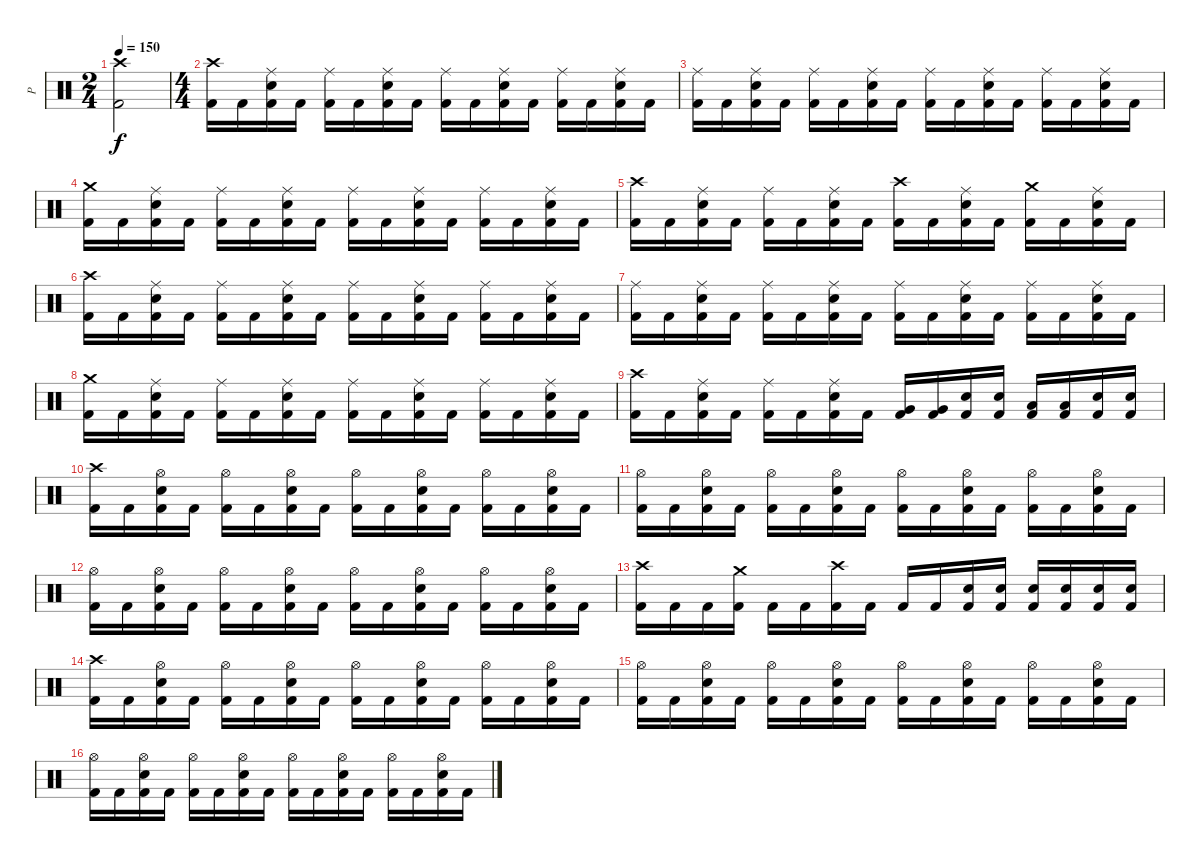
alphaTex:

\track ("P" "P") {instrument percussion}
\staff {score}
\articulation defaults
\ts (2 4)
\tempo 150
\clef neutral
\ks c
("Crash high (hit)" "Kick (hit) 2").2{dy f} |
\ts (4 4)
("Crash high (hit)" "Kick (hit) 2").16 "Kick (hit) 2".16 ("Ride (middle)" "Electric Snare (hit)" "Kick (hit) 2").16 "Kick (hit) 2".16 ("Ride (middle)" "Kick (hit) 2").16 "Kick (hit) 2".16 ("Ride (middle)" "Electric Snare (hit)" "Kick (hit) 2").16 "Kick (hit) 2".16 ("Ride (middle)" "Kick (hit) 2").16 "Kick (hit) 2".16 ("Ride (middle)" "Electric Snare (hit)" "Kick (hit) 2").16 "Kick (hit) 2".16 ("Ride (middle)" "Kick (hit) 2").16 "Kick (hit) 2".16 ("Ride (middle)" "Electric Snare (hit)" "Kick (hit) 2").16 "Kick (hit) 2".16 |
("Ride (middle)" "Kick (hit) 2").16 "Kick (hit) 2".16 ("Ride (middle)" "Electric Snare (hit)" "Kick (hit) 2").16 "Kick (hit) 2".16 ("Ride (middle)" "Kick (hit) 2").16 "Kick (hit) 2".16 ("Ride (middle)" "Electric Snare (hit)" "Kick (hit) 2").16 "Kick (hit) 2".16 ("Ride (middle)" "Kick (hit) 2").16 "Kick (hit) 2".16 ("Ride (middle)" "Electric Snare (hit)" "Kick (hit) 2").16 "Kick (hit) 2".16 ("Ride (middle)" "Kick (hit) 2").16 "Kick (hit) 2".16 ("Ride (middle)" "Electric Snare (hit)" "Kick (hit) 2").16 "Kick (hit) 2".16 |
("Crash medium (hit)" "Kick (hit) 2").16 "Kick (hit) 2".16 ("Ride (middle)" "Electric Snare (hit)" "Kick (hit) 2").16 "Kick (hit) 2".16 ("Ride (middle)" "Kick (hit) 2").16 "Kick (hit) 2".16 ("Ride (middle)" "Electric Snare (hit)" "Kick (hit) 2").16 "Kick (hit) 2".16 ("Ride (middle)" "Kick (hit) 2").16 "Kick (hit) 2".16 ("Ride (middle)" "Electric Snare (hit)" "Kick (hit) 2").16 "Kick (hit) 2".16 ("Ride (middle)" "Kick (hit) 2").16 "Kick (hit) 2".16 ("Ride (middle)" "Electric Snare (hit)" "Kick (hit) 2").16 "Kick (hit) 2".16 |
("Crash high (hit)" "Kick (hit) 2").16 "Kick (hit) 2".16 ("Ride (middle)" "Electric Snare (hit)" "Kick (hit) 2").16 "Kick (hit) 2".16 ("Ride (middle)" "Kick (hit) 2").16 "Kick (hit) 2".16 ("Ride (middle)" "Electric Snare (hit)" "Kick (hit) 2").16 "Kick (hit) 2".16 ("Crash high (hit)" "Kick (hit) 2").16 "Kick (hit) 2".16 ("Ride (middle)" "Electric Snare (hit)" "Kick (hit) 2").16 "Kick (hit) 2".16 ("Crash medium (hit)" "Kick (hit) 2").16 "Kick (hit) 2".16 ("Ride (middle)" "Electric Snare (hit)" "Kick (hit) 2").16 "Kick (hit) 2".16 |
("Crash high (hit)" "Kick (hit) 2").16 "Kick (hit) 2".16 ("Ride (middle)" "Electric Snare (hit)" "Kick (hit) 2").16 "Kick (hit) 2".16 ("Ride (middle)" "Kick (hit) 2").16 "Kick (hit) 2".16 ("Ride (middle)" "Electric Snare (hit)" "Kick (hit) 2").16 "Kick (hit) 2".16 ("Ride (middle)" "Kick (hit) 2").16 "Kick (hit) 2".16 ("Ride (middle)" "Electric Snare (hit)" "Kick (hit) 2").16 "Kick (hit) 2".16 ("Ride (middle)" "Kick (hit) 2").16 "Kick (hit) 2".16 ("Ride (middle)" "Electric Snare (hit)" "Kick (hit) 2").16 "Kick (hit) 2".16 |
("Ride (middle)" "Kick (hit) 2").16 "Kick (hit) 2".16 ("Ride (middle)" "Electric Snare (hit)" "Kick (hit) 2").16 "Kick (hit) 2".16 ("Ride (middle)" "Kick (hit) 2").16 "Kick (hit) 2".16 ("Ride (middle)" "Electric Snare (hit)" "Kick (hit) 2").16 "Kick (hit) 2".16 ("Ride (middle)" "Kick (hit) 2").16 "Kick (hit) 2".16 ("Ride (middle)" "Electric Snare (hit)" "Kick (hit) 2").16 "Kick (hit) 2".16 ("Ride (middle)" "Kick (hit) 2").16 "Kick (hit) 2".16 ("Ride (middle)" "Electric Snare (hit)" "Kick (hit) 2").16 "Kick (hit) 2".16 |
("Crash medium (hit)" "Kick (hit) 2").16 "Kick (hit) 2".16 ("Ride (middle)" "Electric Snare (hit)" "Kick (hit) 2").16 "Kick (hit) 2".16 ("Ride (middle)" "Kick (hit) 2").16 "Kick (hit) 2".16 ("Ride (middle)" "Electric Snare (hit)" "Kick (hit) 2").16 "Kick (hit) 2".16 ("Ride (middle)" "Kick (hit) 2").16 "Kick (hit) 2".16 ("Ride (middle)" "Electric Snare (hit)" "Kick (hit) 2").16 "Kick (hit) 2".16 ("Ride (middle)" "Kick (hit) 2").16 "Kick (hit) 2".16 ("Ride (middle)" "Electric Snare (hit)" "Kick (hit) 2").16 "Kick (hit) 2".16 |
("Crash high (hit)" "Kick (hit) 2").16 "Kick (hit) 2".16 ("Ride (middle)" "Electric Snare (hit)" "Kick (hit) 2").16 "Kick (hit) 2".16 ("Ride (middle)" "Kick (hit) 2").16 "Kick (hit) 2".16 ("Ride (middle)" "Electric Snare (hit)" "Kick (hit) 2").16 "Kick (hit) 2".16 ("Very Low Tom (hit)" "Kick (hit) 2").16 ("Very Low Tom (hit)" "Kick (hit) 2").16 ("Electric Snare (hit)" "Kick (hit) 2").16 ("Electric Snare (hit)" "Kick (hit) 2").16 ("Low Tom (hit)" "Kick (hit) 2").16 ("Low Tom (hit)" "Kick (hit) 2").16 ("Electric Snare (hit)" "Kick (hit) 2").16 ("Electric Snare (hit)" "Kick (hit) 2").16 |
("Crash high (hit)" "Kick (hit) 2").16 "Kick (hit) 2".16 ("Hi-Hat (open)" "Electric Snare (hit)" "Kick (hit) 2").16 "Kick (hit) 2".16 ("Hi-Hat (open)" "Kick (hit) 2").16 "Kick (hit) 2".16 ("Hi-Hat (open)" "Electric Snare (hit)" "Kick (hit) 2").16 "Kick (hit) 2".16 ("Hi-Hat (open)" "Kick (hit) 2").16 "Kick (hit) 2".16 ("Hi-Hat (open)" "Electric Snare (hit)" "Kick (hit) 2").16 "Kick (hit) 2".16 ("Hi-Hat (open)" "Kick (hit) 2").16 "Kick (hit) 2".16 ("Hi-Hat (open)" "Electric Snare (hit)" "Kick (hit) 2").16 "Kick (hit) 2".16 |
("Hi-Hat (open)" "Kick (hit) 2").16 "Kick (hit) 2".16 ("Hi-Hat (open)" "Electric Snare (hit)" "Kick (hit) 2").16 "Kick (hit) 2".16 ("Hi-Hat (open)" "Kick (hit) 2").16 "Kick (hit) 2".16 ("Hi-Hat (open)" "Electric Snare (hit)" "Kick (hit) 2").16 "Kick (hit) 2".16 ("Hi-Hat (open)" "Kick (hit) 2").16 "Kick (hit) 2".16 ("Hi-Hat (open)" "Electric Snare (hit)" "Kick (hit) 2").16 "Kick (hit) 2".16 ("Hi-Hat (open)" "Kick (hit) 2").16 "Kick (hit) 2".16 ("Hi-Hat (open)" "Electric Snare (hit)" "Kick (hit) 2").16 "Kick (hit) 2".16 |
("Hi-Hat (open)" "Kick (hit) 2").16 "Kick (hit) 2".16 ("Hi-Hat (open)" "Electric Snare (hit)" "Kick (hit) 2").16 "Kick (hit) 2".16 ("Hi-Hat (open)" "Kick (hit) 2").16 "Kick (hit) 2".16 ("Hi-Hat (open)" "Electric Snare (hit)" "Kick (hit) 2").16 "Kick (hit) 2".16 ("Hi-Hat (open)" "Kick (hit) 2").16 "Kick (hit) 2".16 ("Hi-Hat (open)" "Electric Snare (hit)" "Kick (hit) 2").16 "Kick (hit) 2".16 ("Hi-Hat (open)" "Kick (hit) 2").16 "Kick (hit) 2".16 ("Hi-Hat (open)" "Electric Snare (hit)" "Kick (hit) 2").16 "Kick (hit) 2".16 |
("Crash high (hit)" "Kick (hit) 2").16 "Kick (hit) 2".16 "Kick (hit) 2".16 ("Crash medium (hit)" "Kick (hit) 2").16 "Kick (hit) 2".16 "Kick (hit) 2".16 ("Crash high (hit)" "Kick (hit) 2").16 "Kick (hit) 2".16 "Kick (hit) 2".16 "Kick (hit) 2".16 ("Electric Snare (hit)" "Kick (hit) 2").16 ("Electric Snare (hit)" "Kick (hit) 2").16 ("Electric Snare (hit)" "Kick (hit) 2").16 ("Electric Snare (hit)" "Kick (hit) 2").16 ("Electric Snare (hit)" "Kick (hit) 2").16 ("Electric Snare (hit)" "Kick (hit) 2").16 |
("Crash high (hit)" "Kick (hit) 2").16 "Kick (hit) 2".16 ("Hi-Hat (open)" "Electric Snare (hit)" "Kick (hit) 2").16 "Kick (hit) 2".16 ("Hi-Hat (open)" "Kick (hit) 2").16 "Kick (hit) 2".16 ("Hi-Hat (open)" "Electric Snare (hit)" "Kick (hit) 2").16 "Kick (hit) 2".16 ("Hi-Hat (open)" "Kick (hit) 2").16 "Kick (hit) 2".16 ("Hi-Hat (open)" "Electric Snare (hit)" "Kick (hit) 2").16 "Kick (hit) 2".16 ("Hi-Hat (open)" "Kick (hit) 2").16 "Kick (hit) 2".16 ("Hi-Hat (open)" "Electric Snare (hit)" "Kick (hit) 2").16 "Kick (hit) 2".16 |
("Hi-Hat (open)" "Kick (hit) 2").16 "Kick (hit) 2".16 ("Hi-Hat (open)" "Electric Snare (hit)" "Kick (hit) 2").16 "Kick (hit) 2".16 ("Hi-Hat (open)" "Kick (hit) 2").16 "Kick (hit) 2".16 ("Hi-Hat (open)" "Electric Snare (hit)" "Kick (hit) 2").16 "Kick (hit) 2".16 ("Hi-Hat (open)" "Kick (hit) 2").16 "Kick (hit) 2".16 ("Hi-Hat (open)" "Electric Snare (hit)" "Kick (hit) 2").16 "Kick (hit) 2".16 ("Hi-Hat (open)" "Kick (hit) 2").16 "Kick (hit) 2".16 ("Hi-Hat (open)" "Electric Snare (hit)" "Kick (hit) 2").16 "Kick (hit) 2".16 |
("Hi-Hat (open)" "Kick (hit) 2").16 "Kick (hit) 2".16 ("Hi-Hat (open)" "Electric Snare (hit)" "Kick (hit) 2").16 "Kick (hit) 2".16 ("Hi-Hat (open)" "Kick (hit) 2").16 "Kick (hit) 2".16 ("Hi-Hat (open)" "Electric Snare (hit)" "Kick (hit) 2").16 "Kick (hit) 2".16 ("Hi-Hat (open)" "Kick (hit) 2").16 "Kick (hit) 2".16 ("Hi-Hat (open)" "Electric Snare (hit)" "Kick (hit) 2").16 "Kick (hit) 2".16 ("Hi-Hat (open)" "Kick (hit) 2").16 "Kick (hit) 2".16 ("Hi-Hat (open)" "Electric Snare (hit)" "Kick (hit) 2").16 "Kick (hit) 2".16
